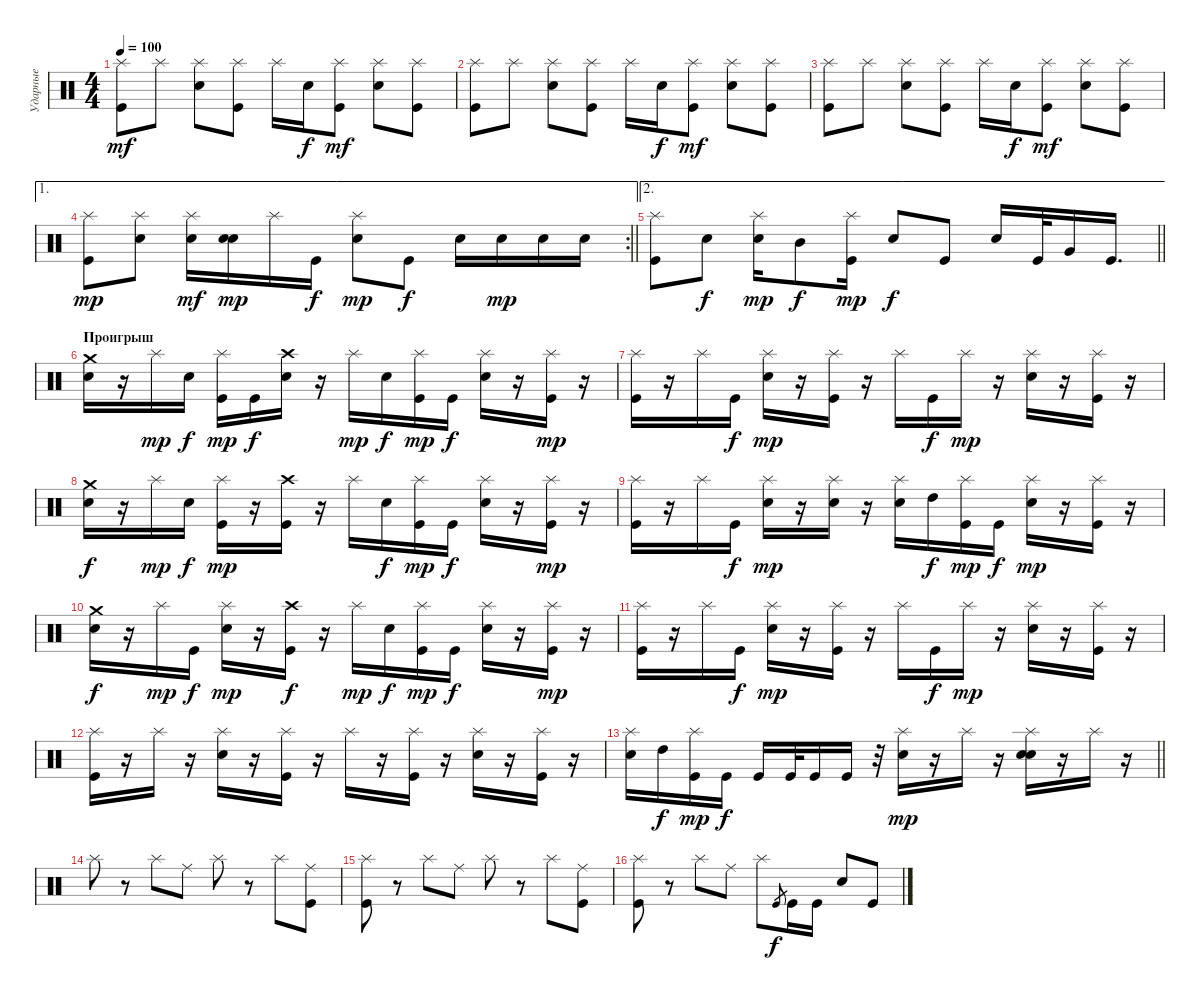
\track ("Ударные" "Ударные") {instrument percussion}
\staff {score}
\articulation defaults
\ts (4 4)
\tempo 100
\clef neutral
\ks c
("Splash (hit)" "Kick (hit)").8{dy mf} "Splash (hit)".8 ("Splash (hit)" "Electric Snare (hit)").8 ("Splash (hit)" "Kick (hit)").8 "Splash (hit)".16 "Electric Snare (hit)".16{dy f} ("Splash (hit)" "Kick (hit)").8{dy mf} ("Splash (hit)" "Electric Snare (hit)").8 ("Splash (hit)" "Kick (hit)").8 |
("Splash (hit)" "Kick (hit)").8 "Splash (hit)".8 ("Splash (hit)" "Electric Snare (hit)").8 ("Splash (hit)" "Kick (hit)").8 "Splash (hit)".16 "Electric Snare (hit)".16{dy f} ("Splash (hit)" "Kick (hit)").8{dy mf} ("Splash (hit)" "Electric Snare (hit)").8 ("Splash (hit)" "Kick (hit)").8 |
("Splash (hit)" "Kick (hit)").8 "Splash (hit)".8 ("Splash (hit)" "Electric Snare (hit)").8 ("Splash (hit)" "Kick (hit)").8 "Splash (hit)".16 "Electric Snare (hit)".16{dy f} ("Splash (hit)" "Kick (hit)").8{dy mf} ("Splash (hit)" "Electric Snare (hit)").8 ("Splash (hit)" "Kick (hit)").8 |
\ae 1
\rc 2
\barLineRight lightlight
("Splash (hit)" "Kick (hit)").8{dy mp} ("Splash (hit)" "Electric Snare (hit)").8 ("Splash (hit)" "Electric Snare (hit)").16{dy mf} ("Electric Snare (hit)" "Snare (hit) 2").16{dy mp} "Splash (hit)".16 "Kick (hit)".16{dy f} ("Splash (hit)" "Electric Snare (hit)").8{dy mp} "Kick (hit)".8{dy f} "Electric Snare (hit)".16 "Electric Snare (hit)".16{dy mp} "Electric Snare (hit)".16 "Electric Snare (hit)".16 |
\ae 2
\barLineRight lightlight
("Splash (hit)" "Kick (hit)").8 "Electric Snare (hit)".8{dy f} ("Splash (hit)" "Electric Snare (hit)").16{dy mp} "Mid Tom (hit)".8{dy f} ("Splash (hit)" "Kick (hit)").16{dy mp} "Electric Snare (hit)".8{dy f} "Kick (hit)".8 "Electric Snare (hit)".16 "Kick (hit)".32 "Very Low Tom (hit)".16 "Kick (hit)".16{d} |
\section ("" "Проигрыш")
("Crash medium (hit)" "Electric Snare (hit)").16 r.16 "Splash (hit)".16{dy mp} "Electric Snare (hit)".16{dy f} ("Splash (hit)" "Kick (hit)").16{dy mp} "Kick (hit)".16{dy f} ("Crash high (hit)" "Electric Snare (hit)").16 r.16 "Splash (hit)".16{dy mp} "Electric Snare (hit)".16{dy f} ("Splash (hit)" "Kick (hit)").16{dy mp} "Kick (hit)".16{dy f} ("Splash (hit)" "Electric Snare (hit)").16 r.16 ("Splash (hit)" "Kick (hit)").16{dy mp} r.16 |
("Splash (hit)" "Kick (hit)").16 r.16 "Splash (hit)".16 "Kick (hit)".16{dy f} ("Splash (hit)" "Electric Snare (hit)").16{dy mp} r.16 ("Splash (hit)" "Kick (hit)").16 r.16 "Splash (hit)".16 "Kick (hit)".16{dy f} "Splash (hit)".16{dy mp} r.16 ("Splash (hit)" "Electric Snare (hit)").16 r.16 ("Splash (hit)" "Kick (hit)").16 r.16 |
("Crash medium (hit)" "Electric Snare (hit)").16{dy f} r.16 "Splash (hit)".16{dy mp} "Electric Snare (hit)".16{dy f} ("Splash (hit)" "Kick (hit)").16{dy mp} r.16 ("Crash high (hit)" "Kick (hit)").16 r.16 "Splash (hit)".16 "Electric Snare (hit)".16{dy f} ("Splash (hit)" "Kick (hit)").16{dy mp} "Kick (hit)".16{dy f} ("Splash (hit)" "Electric Snare (hit)").16 r.16 ("Splash (hit)" "Kick (hit)").16{dy mp} r.16 |
("Splash (hit)" "Kick (hit)").16 r.16 "Splash (hit)".16 "Kick (hit)".16{dy f} ("Splash (hit)" "Electric Snare (hit)").16{dy mp} r.16 ("Splash (hit)" "Electric Snare (hit)").16 r.16 ("Splash (hit)" "Electric Snare (hit)").16 "High Tom (hit)".16{dy f} ("Splash (hit)" "Kick (hit)").16{dy mp} "Kick (hit)".16{dy f} ("Splash (hit)" "Electric Snare (hit)").16{dy mp} r.16 ("Splash (hit)" "Kick (hit)").16 r.16 |
("Crash medium (hit)" "Electric Snare (hit)").16{dy f} r.16 "Splash (hit)".16{dy mp} "Kick (hit)".16{dy f} ("Splash (hit)" "Electric Snare (hit)").16{dy mp} r.16 ("Crash high (hit)" "Kick (hit)").16{dy f} r.16 "Splash (hit)".16{dy mp} "Electric Snare (hit)".16{dy f} ("Splash (hit)" "Kick (hit)").16{dy mp} "Kick (hit)".16{dy f} ("Splash (hit)" "Electric Snare (hit)").16 r.16 ("Splash (hit)" "Kick (hit)").16{dy mp} r.16 |
("Splash (hit)" "Kick (hit)").16 r.16 "Splash (hit)".16 "Kick (hit)".16{dy f} ("Splash (hit)" "Electric Snare (hit)").16{dy mp} r.16 ("Splash (hit)" "Kick (hit)").16 r.16 "Splash (hit)".16 "Kick (hit)".16{dy f} "Splash (hit)".16{dy mp} r.16 ("Splash (hit)" "Electric Snare (hit)").16 r.16 ("Splash (hit)" "Kick (hit)").16 r.16 |
("Splash (hit)" "Kick (hit)").16 r.16 "Splash (hit)".16 r.16 ("Splash (hit)" "Electric Snare (hit)").16 r.16 ("Splash (hit)" "Kick (hit)").16 r.16 "Splash (hit)".16 r.16 ("Splash (hit)" "Kick (hit)").16 r.16 ("Splash (hit)" "Electric Snare (hit)").16 r.16 ("Splash (hit)" "Kick (hit)").16 r.16 |
\barLineRight lightlight
("Splash (hit)" "Electric Snare (hit)").16 "High Tom (hit)".16{dy f} ("Splash (hit)" "Kick (hit)").16{dy mp} "Kick (hit)".16{dy f} "Kick (hit)".16 "Kick (hit)".32 "Kick (hit)".16 "Kick (hit)".16 r.32 ("Splash (hit)" "Electric Snare (hit)").16{dy mp} r.16 "Splash (hit)".16 r.16 ("Splash (hit)" "Electric Snare (hit)" "Snare (hit) 2").16 r.16 "Splash (hit)".16 r.16 |
"Splash (hit)".8 r.8 "Splash (hit)".8 "Ride (middle)".8 "Splash (hit)".8 r.8 "Splash (hit)".8 ("Ride (middle)" "Kick (hit)").8 |
("Splash (hit)" "Kick (hit)").8 r.8 "Splash (hit)".8 "Ride (middle)".8 "Splash (hit)".8 r.8 "Splash (hit)".8 ("Ride (middle)" "Kick (hit)").8 |
("Splash (hit)" "Kick (hit)").8 r.8 "Splash (hit)".8 "Ride (middle)".8 "Splash (hit)".8 "Kick (hit)".8{gr dy f} "Kick (hit)".16 "Kick (hit)".16 "Electric Snare (hit)".8 "Kick (hit)".8
